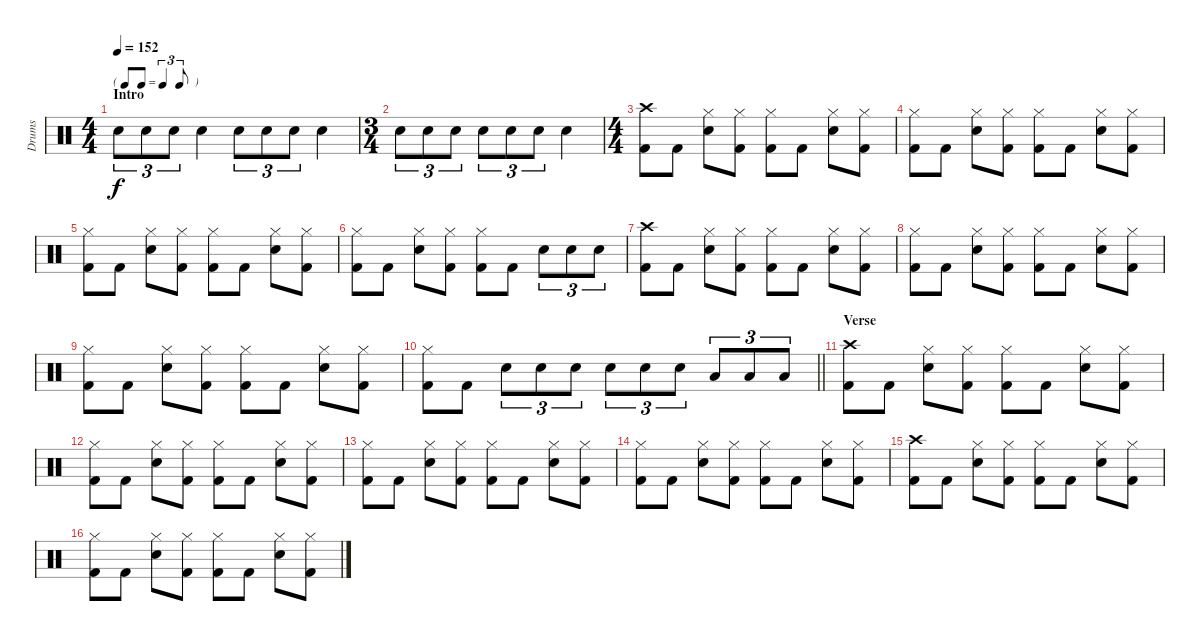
\track ("Drums" "Drums") {instrument percussion}
\staff {score}
\articulation defaults
\ts (4 4)
\tf triplet8th
\section ("" "Intro")
\tempo 152
\clef neutral
\ks c "Snare (hit) 2".8{tu (3 2) dy f} "Snare (hit) 2".8{tu (3 2)} "Snare (hit) 2".8{tu (3 2)} "Snare (hit) 2".4 "Snare (hit) 2".8{tu (3 2)} "Snare (hit) 2".8{tu (3 2)} "Snare (hit) 2".8{tu (3 2)} "Snare (hit) 2".4
|
\ts (3 4)
"Snare (hit) 2".8{tu (3 2)} "Snare (hit) 2".8{tu (3 2)} "Snare (hit) 2".8{tu (3 2)} "Snare (hit) 2".8{tu (3 2)} "Snare (hit) 2".8{tu (3 2)} "Snare (hit) 2".8{tu (3 2)} "Snare (hit) 2".4 |
\ts (4 4)
("Crash high (hit)" "Kick (hit) 2").8 "Kick (hit) 2".8 ("Hi-Hat (closed)" "Snare (hit) 2").8 ("Hi-Hat (closed)" "Kick (hit) 2").8 ("Hi-Hat (closed)" "Kick (hit) 2").8 "Kick (hit) 2".8 ("Hi-Hat (closed)" "Snare (hit) 2").8 ("Hi-Hat (closed)" "Kick (hit) 2").8 |
("Hi-Hat (closed)" "Kick (hit) 2").8 "Kick (hit) 2".8 ("Hi-Hat (closed)" "Snare (hit) 2").8 ("Hi-Hat (closed)" "Kick (hit) 2").8 ("Hi-Hat (closed)" "Kick (hit) 2").8 "Kick (hit) 2".8 ("Hi-Hat (closed)" "Snare (hit) 2").8 ("Hi-Hat (closed)" "Kick (hit) 2").8 |
("Hi-Hat (closed)" "Kick (hit) 2").8 "Kick (hit) 2".8 ("Hi-Hat (closed)" "Snare (hit) 2").8 ("Hi-Hat (closed)" "Kick (hit) 2").8 ("Hi-Hat (closed)" "Kick (hit) 2").8 "Kick (hit) 2".8 ("Hi-Hat (closed)" "Snare (hit) 2").8 ("Hi-Hat (closed)" "Kick (hit) 2").8 |
("Hi-Hat (closed)" "Kick (hit) 2").8 "Kick (hit) 2".8 ("Hi-Hat (closed)" "Snare (hit) 2").8 ("Hi-Hat (closed)" "Kick (hit) 2").8 ("Hi-Hat (closed)" "Kick (hit) 2").8 "Kick (hit) 2".8 "Snare (hit) 2".8{tu (3 2)} "Snare (hit) 2".8{tu (3 2)} "Snare (hit) 2".8{tu (3 2)} |
("Crash high (hit)" "Kick (hit) 2").8 "Kick (hit) 2".8 ("Hi-Hat (closed)" "Snare (hit) 2").8 ("Hi-Hat (closed)" "Kick (hit) 2").8 ("Hi-Hat (closed)" "Kick (hit) 2").8 "Kick (hit) 2".8 ("Hi-Hat (closed)" "Snare (hit) 2").8 ("Hi-Hat (closed)" "Kick (hit) 2").8 |
("Hi-Hat (closed)" "Kick (hit) 2").8 "Kick (hit) 2".8 ("Hi-Hat (closed)" "Snare (hit) 2").8 ("Hi-Hat (closed)" "Kick (hit) 2").8 ("Hi-Hat (closed)" "Kick (hit) 2").8 "Kick (hit) 2".8 ("Hi-Hat (closed)" "Snare (hit) 2").8 ("Hi-Hat (closed)" "Kick (hit) 2").8 |
("Hi-Hat (closed)" "Kick (hit) 2").8 "Kick (hit) 2".8 ("Hi-Hat (closed)" "Snare (hit) 2").8 ("Hi-Hat (closed)" "Kick (hit) 2").8 ("Hi-Hat (closed)" "Kick (hit) 2").8 "Kick (hit) 2".8 ("Hi-Hat (closed)" "Snare (hit) 2").8 ("Hi-Hat (closed)" "Kick (hit) 2").8 |
\barLineRight lightlight
("Hi-Hat (closed)" "Kick (hit) 2").8 "Kick (hit) 2".8 "Snare (hit) 2".8{tu (3 2)} "Snare (hit) 2".8{tu (3 2)} "Snare (hit) 2".8{tu (3 2)} "Snare (hit) 2".8{tu (3 2)} "Snare (hit) 2".8{tu (3 2)} "Snare (hit) 2".8{tu (3 2)} "Low Tom (hit)".8{tu (3 2)} "Low Tom (hit)".8{tu (3 2)} "Low Tom (hit)".8{tu (3 2)} |
\section ("" "Verse ")
("Crash high (hit)" "Kick (hit) 2").8 "Kick (hit) 2".8 ("Hi-Hat (closed)" "Snare (hit) 2").8 ("Hi-Hat (closed)" "Kick (hit) 2").8 ("Hi-Hat (closed)" "Kick (hit) 2").8 "Kick (hit) 2".8 ("Hi-Hat (closed)" "Snare (hit) 2").8 ("Hi-Hat (closed)" "Kick (hit) 2").8 |
("Hi-Hat (closed)" "Kick (hit) 2").8 "Kick (hit) 2".8 ("Hi-Hat (closed)" "Snare (hit) 2").8 ("Hi-Hat (closed)" "Kick (hit) 2").8 ("Hi-Hat (closed)" "Kick (hit) 2").8 "Kick (hit) 2".8 ("Hi-Hat (closed)" "Snare (hit) 2").8 ("Hi-Hat (closed)" "Kick (hit) 2").8 |
("Hi-Hat (closed)" "Kick (hit) 2").8 "Kick (hit) 2".8 ("Hi-Hat (closed)" "Snare (hit) 2").8 ("Hi-Hat (closed)" "Kick (hit) 2").8 ("Hi-Hat (closed)" "Kick (hit) 2").8 "Kick (hit) 2".8 ("Hi-Hat (closed)" "Snare (hit) 2").8 ("Hi-Hat (closed)" "Kick (hit) 2").8 |
("Hi-Hat (closed)" "Kick (hit) 2").8 "Kick (hit) 2".8 ("Hi-Hat (closed)" "Snare (hit) 2").8 ("Hi-Hat (closed)" "Kick (hit) 2").8 ("Hi-Hat (closed)" "Kick (hit) 2").8 "Kick (hit) 2".8 ("Hi-Hat (closed)" "Snare (hit) 2").8 ("Hi-Hat (closed)" "Kick (hit) 2").8 |
("Crash high (hit)" "Kick (hit) 2").8 "Kick (hit) 2".8 ("Hi-Hat (closed)" "Snare (hit) 2").8 ("Hi-Hat (closed)" "Kick (hit) 2").8 ("Hi-Hat (closed)" "Kick (hit) 2").8 "Kick (hit) 2".8 ("Hi-Hat (closed)" "Snare (hit) 2").8 ("Hi-Hat (closed)" "Kick (hit) 2").8 |
("Hi-Hat (closed)" "Kick (hit) 2").8 "Kick (hit) 2".8 ("Hi-Hat (closed)" "Snare (hit) 2").8 ("Hi-Hat (closed)" "Kick (hit) 2").8 ("Hi-Hat (closed)" "Kick (hit) 2").8 "Kick (hit) 2".8 ("Hi-Hat (closed)" "Snare (hit) 2").8 ("Hi-Hat (closed)" "Kick (hit) 2").8
